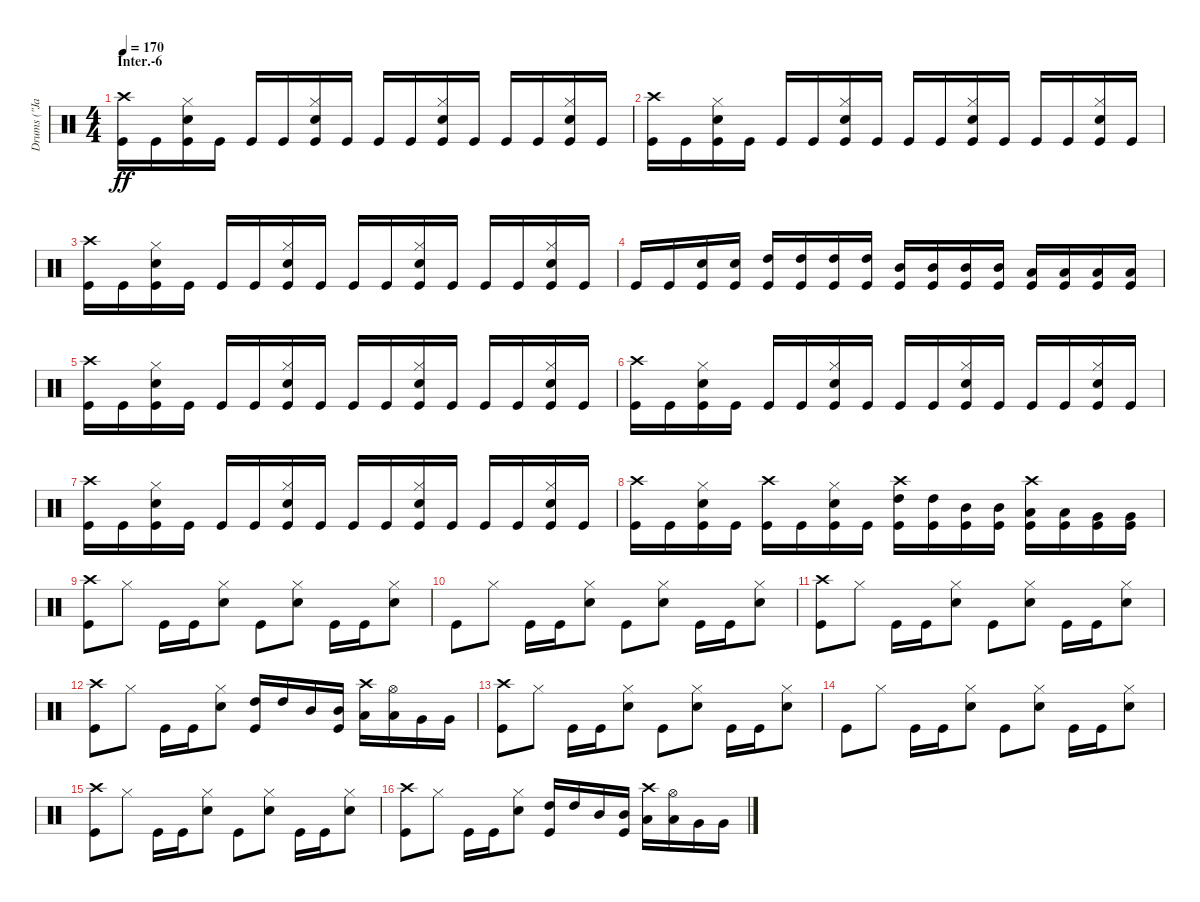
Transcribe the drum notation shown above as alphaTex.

\track ("Drums (\"Jane\")" "Drums (\"Ja") {instrument percussion}
\staff {score}
\articulation defaults
\ts (4 4)
\section ("" "Inter.-6")
\tempo 170
\clef neutral
\ks c
("Crash high (hit)" "Kick (hit)").16{dy ff} "Kick (hit)".16 ("Hi-Hat (closed)" "Snare (hit) 2" "Kick (hit)").16 "Kick (hit)".16 "Kick (hit)".16 "Kick (hit)".16 ("Hi-Hat (closed)" "Snare (hit) 2" "Kick (hit)").16 "Kick (hit)".16 "Kick (hit)".16 "Kick (hit)".16 ("Hi-Hat (closed)" "Snare (hit) 2" "Kick (hit)").16 "Kick (hit)".16 "Kick (hit)".16 "Kick (hit)".16 ("Hi-Hat (closed)" "Snare (hit) 2" "Kick (hit)").16 "Kick (hit)".16 |
("Crash high (hit)" "Kick (hit)").16 "Kick (hit)".16 ("Hi-Hat (closed)" "Snare (hit) 2" "Kick (hit)").16 "Kick (hit)".16 "Kick (hit)".16 "Kick (hit)".16 ("Hi-Hat (closed)" "Snare (hit) 2" "Kick (hit)").16 "Kick (hit)".16 "Kick (hit)".16 "Kick (hit)".16 ("Hi-Hat (closed)" "Snare (hit) 2" "Kick (hit)").16 "Kick (hit)".16 "Kick (hit)".16 "Kick (hit)".16 ("Hi-Hat (closed)" "Snare (hit) 2" "Kick (hit)").16 "Kick (hit)".16 |
("Crash high (hit)" "Kick (hit)").16 "Kick (hit)".16 ("Hi-Hat (closed)" "Snare (hit) 2" "Kick (hit)").16 "Kick (hit)".16 "Kick (hit)".16 "Kick (hit)".16 ("Hi-Hat (closed)" "Snare (hit) 2" "Kick (hit)").16 "Kick (hit)".16 "Kick (hit)".16 "Kick (hit)".16 ("Hi-Hat (closed)" "Snare (hit) 2" "Kick (hit)").16 "Kick (hit)".16 "Kick (hit)".16 "Kick (hit)".16 ("Hi-Hat (closed)" "Snare (hit) 2" "Kick (hit)").16 "Kick (hit)".16 |
"Kick (hit)".16 "Kick (hit)".16 ("Snare (hit) 2" "Kick (hit)").16 ("Snare (hit) 2" "Kick (hit)").16 ("High Tom (hit)" "Kick (hit)").16 ("High Tom (hit)" "Kick (hit)").16 ("High Tom (hit)" "Kick (hit)").16 ("High Tom (hit)" "Kick (hit)").16 ("Mid Tom (hit)" "Kick (hit)").16 ("Mid Tom (hit)" "Kick (hit)").16 ("Mid Tom (hit)" "Kick (hit)").16 ("Mid Tom (hit)" "Kick (hit)").16 ("Low Tom (hit)" "Kick (hit)").16 ("Low Tom (hit)" "Kick (hit)").16 ("Low Tom (hit)" "Kick (hit)").16 ("Low Tom (hit)" "Kick (hit)").16 |
("Crash high (hit)" "Kick (hit)").16 "Kick (hit)".16 ("Hi-Hat (closed)" "Snare (hit) 2" "Kick (hit)").16 "Kick (hit)".16 "Kick (hit)".16 "Kick (hit)".16 ("Hi-Hat (closed)" "Snare (hit) 2" "Kick (hit)").16 "Kick (hit)".16 "Kick (hit)".16 "Kick (hit)".16 ("Hi-Hat (closed)" "Snare (hit) 2" "Kick (hit)").16 "Kick (hit)".16 "Kick (hit)".16 "Kick (hit)".16 ("Hi-Hat (closed)" "Snare (hit) 2" "Kick (hit)").16 "Kick (hit)".16 |
("Crash high (hit)" "Kick (hit)").16 "Kick (hit)".16 ("Hi-Hat (closed)" "Snare (hit) 2" "Kick (hit)").16 "Kick (hit)".16 "Kick (hit)".16 "Kick (hit)".16 ("Hi-Hat (closed)" "Snare (hit) 2" "Kick (hit)").16 "Kick (hit)".16 "Kick (hit)".16 "Kick (hit)".16 ("Hi-Hat (closed)" "Snare (hit) 2" "Kick (hit)").16 "Kick (hit)".16 "Kick (hit)".16 "Kick (hit)".16 ("Hi-Hat (closed)" "Snare (hit) 2" "Kick (hit)").16 "Kick (hit)".16 |
("Crash high (hit)" "Kick (hit)").16 "Kick (hit)".16 ("Hi-Hat (closed)" "Snare (hit) 2" "Kick (hit)").16 "Kick (hit)".16 "Kick (hit)".16 "Kick (hit)".16 ("Hi-Hat (closed)" "Snare (hit) 2" "Kick (hit)").16 "Kick (hit)".16 "Kick (hit)".16 "Kick (hit)".16 ("Hi-Hat (closed)" "Snare (hit) 2" "Kick (hit)").16 "Kick (hit)".16 "Kick (hit)".16 "Kick (hit)".16 ("Hi-Hat (closed)" "Snare (hit) 2" "Kick (hit)").16 "Kick (hit)".16 |
("Crash high (hit)" "Kick (hit)").16 "Kick (hit)".16 ("Hi-Hat (closed)" "Snare (hit) 2" "Kick (hit)").16 "Kick (hit)".16 ("Crash high (hit)" "Kick (hit)").16 "Kick (hit)".16 ("Hi-Hat (closed)" "Snare (hit) 2" "Kick (hit)").16 "Kick (hit)".16 ("Crash high (hit)" "High Tom (hit)" "Kick (hit)").16 ("High Tom (hit)" "Kick (hit)").16 ("Mid Tom (hit)" "Kick (hit)").16 ("Mid Tom (hit)" "Kick (hit)").16 ("Crash high (hit)" "Low Tom (hit)" "Kick (hit)").16 ("Low Tom (hit)" "Kick (hit)").16 ("Very Low Tom (hit)" "Kick (hit)").16 ("Very Low Tom (hit)" "Kick (hit)").16 |
("Crash high (hit)" "Kick (hit)").8 "Hi-Hat (closed)".8 "Kick (hit)".16 "Kick (hit)".16 ("Hi-Hat (closed)" "Snare (hit) 2").8 "Kick (hit)".8 ("Hi-Hat (closed)" "Snare (hit) 2").8 "Kick (hit)".16 "Kick (hit)".16 ("Hi-Hat (closed)" "Snare (hit) 2").8 |
"Kick (hit)".8 "Hi-Hat (closed)".8 "Kick (hit)".16 "Kick (hit)".16 ("Hi-Hat (closed)" "Snare (hit) 2").8 "Kick (hit)".8 ("Hi-Hat (closed)" "Snare (hit) 2").8 "Kick (hit)".16 "Kick (hit)".16 ("Hi-Hat (closed)" "Snare (hit) 2").8 |
("Crash high (hit)" "Kick (hit)").8 "Hi-Hat (closed)".8 "Kick (hit)".16 "Kick (hit)".16 ("Hi-Hat (closed)" "Snare (hit) 2").8 "Kick (hit)".8 ("Hi-Hat (closed)" "Snare (hit) 2").8 "Kick (hit)".16 "Kick (hit)".16 ("Hi-Hat (closed)" "Snare (hit) 2").8 |
("Crash high (hit)" "Kick (hit)").8 "Hi-Hat (closed)".8 "Kick (hit)".16 "Kick (hit)".16 ("Hi-Hat (closed)" "Snare (hit) 2").8 ("High Tom (hit)" "Kick (hit)").16 "High Tom (hit)".16 "Mid Tom (hit)".16 ("Mid Tom (hit)" "Kick (hit)").16 ("Crash high (hit)" "Low Tom (hit)").16 ("Low Tom (hit)" "Hi-Hat (open)").16 "Very Low Tom (hit)".16 "Very Low Tom (hit)".16 |
("Crash high (hit)" "Kick (hit)").8 "Hi-Hat (closed)".8 "Kick (hit)".16 "Kick (hit)".16 ("Hi-Hat (closed)" "Snare (hit) 2").8 "Kick (hit)".8 ("Hi-Hat (closed)" "Snare (hit) 2").8 "Kick (hit)".16 "Kick (hit)".16 ("Hi-Hat (closed)" "Snare (hit) 2").8 |
"Kick (hit)".8 "Hi-Hat (closed)".8 "Kick (hit)".16 "Kick (hit)".16 ("Hi-Hat (closed)" "Snare (hit) 2").8 "Kick (hit)".8 ("Hi-Hat (closed)" "Snare (hit) 2").8 "Kick (hit)".16 "Kick (hit)".16 ("Hi-Hat (closed)" "Snare (hit) 2").8 |
("Crash high (hit)" "Kick (hit)").8 "Hi-Hat (closed)".8 "Kick (hit)".16 "Kick (hit)".16 ("Hi-Hat (closed)" "Snare (hit) 2").8 "Kick (hit)".8 ("Hi-Hat (closed)" "Snare (hit) 2").8 "Kick (hit)".16 "Kick (hit)".16 ("Hi-Hat (closed)" "Snare (hit) 2").8 |
("Crash high (hit)" "Kick (hit)").8 "Hi-Hat (closed)".8 "Kick (hit)".16 "Kick (hit)".16 ("Hi-Hat (closed)" "Snare (hit) 2").8 ("High Tom (hit)" "Kick (hit)").16 "High Tom (hit)".16 "Mid Tom (hit)".16 ("Mid Tom (hit)" "Kick (hit)").16 ("Crash high (hit)" "Low Tom (hit)").16 ("Low Tom (hit)" "Hi-Hat (open)").16 "Very Low Tom (hit)".16 "Very Low Tom (hit)".16
